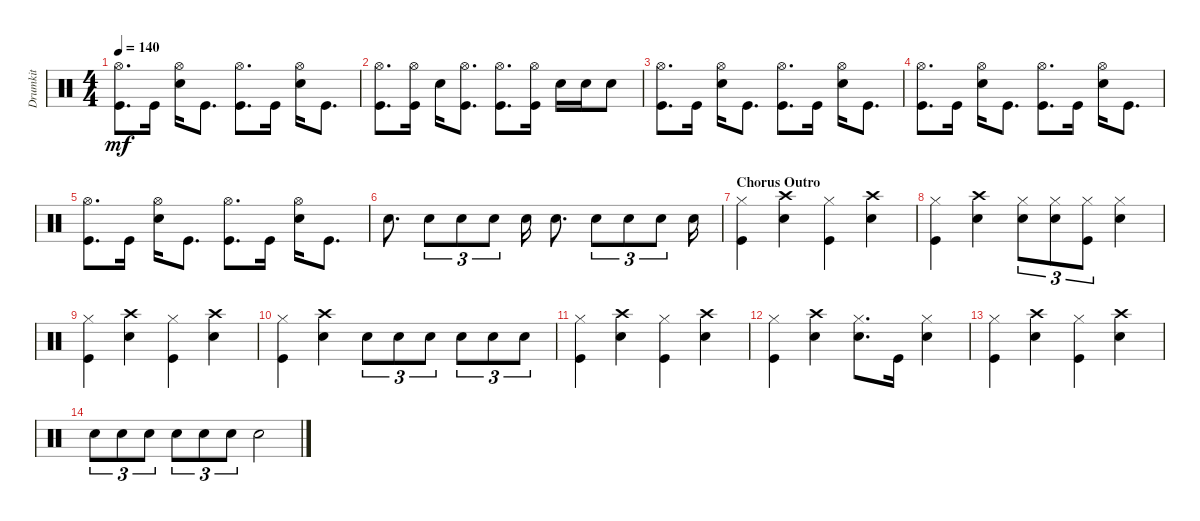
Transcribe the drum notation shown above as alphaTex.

\track ("Drumkit" "Drumkit") {instrument percussion}
\staff {score}
\articulation defaults
\ts (4 4)
\tempo 140
\clef neutral
\ks c
("Kick (hit)" "Hi-Hat (open)").8{d dy mf} "Kick (hit)".16 ("Snare (hit) 2" "Hi-Hat (open)").16 "Kick (hit)".8{d} ("Kick (hit)" "Hi-Hat (open)").8{d} "Kick (hit)".16 ("Snare (hit) 2" "Hi-Hat (open)").16 "Kick (hit)".8{d} |
("Kick (hit)" "Hi-Hat (open)").8{d} ("Kick (hit)" "Hi-Hat (open)").16 "Snare (hit) 2".16 ("Kick (hit)" "Hi-Hat (open)").8{d} ("Kick (hit)" "Hi-Hat (open)").8{d} ("Kick (hit)" "Hi-Hat (open)").16 "Snare (hit) 2".16 "Snare (hit) 2".16 "Snare (hit) 2".8 |
("Kick (hit)" "Hi-Hat (open)").8{d} "Kick (hit)".16 ("Snare (hit) 2" "Hi-Hat (open)").16 "Kick (hit)".8{d} ("Kick (hit)" "Hi-Hat (open)").8{d} "Kick (hit)".16 ("Snare (hit) 2" "Hi-Hat (open)").16 "Kick (hit)".8{d} |
("Kick (hit)" "Hi-Hat (open)").8{d} "Kick (hit)".16 ("Snare (hit) 2" "Hi-Hat (open)").16 "Kick (hit)".8{d} ("Kick (hit)" "Hi-Hat (open)").8{d} "Kick (hit)".16 ("Snare (hit) 2" "Hi-Hat (open)").16 "Kick (hit)".8{d} |
("Kick (hit)" "Hi-Hat (open)").8{d} "Kick (hit)".16 ("Snare (hit) 2" "Hi-Hat (open)").16 "Kick (hit)".8{d} ("Kick (hit)" "Hi-Hat (open)").8{d} "Kick (hit)".16 ("Snare (hit) 2" "Hi-Hat (open)").16 "Kick (hit)".8{d} |
"Snare (hit) 2".8{d} "Snare (hit) 2".8{tu (3 2)} "Snare (hit) 2".8{tu (3 2)} "Snare (hit) 2".8{tu (3 2)} "Snare (hit) 2".16 "Snare (hit) 2".8{d} "Snare (hit) 2".8{tu (3 2)} "Snare (hit) 2".8{tu (3 2)} "Snare (hit) 2".8{tu (3 2)} "Snare (hit) 2".16 |
\section ("" "Chorus Outro")
("Hi-Hat (closed)" "Kick (hit)").4 ("Crash high (hit)" "Snare (hit) 2").4 ("Hi-Hat (closed)" "Kick (hit)").4 ("Crash high (hit)" "Snare (hit) 2").4 |
("Hi-Hat (closed)" "Kick (hit)").4 ("Crash high (hit)" "Snare (hit) 2").4 ("Snare (hit) 2" "Hi-Hat (closed)").8{tu (3 2)} ("Snare (hit) 2" "Hi-Hat (closed)").8{tu (3 2)} ("Kick (hit)" "Hi-Hat (closed)").8{tu (3 2)} ("Snare (hit) 2" "Hi-Hat (closed)").4 |
("Hi-Hat (closed)" "Kick (hit)").4 ("Crash high (hit)" "Snare (hit) 2").4 ("Hi-Hat (closed)" "Kick (hit)").4 ("Crash high (hit)" "Snare (hit) 2").4 |
("Hi-Hat (closed)" "Kick (hit)").4 ("Crash high (hit)" "Snare (hit) 2").4 "Snare (hit) 2".8{tu (3 2)} "Snare (hit) 2".8{tu (3 2)} "Snare (hit) 2".8{tu (3 2)} "Snare (hit) 2".8{tu (3 2)} "Snare (hit) 2".8{tu (3 2)} "Snare (hit) 2".8{tu (3 2)} |
("Hi-Hat (closed)" "Kick (hit)").4 ("Crash high (hit)" "Snare (hit) 2").4 ("Hi-Hat (closed)" "Kick (hit)").4 ("Crash high (hit)" "Snare (hit) 2").4 |
("Hi-Hat (closed)" "Kick (hit)").4 ("Crash high (hit)" "Snare (hit) 2").4 ("Snare (hit) 2" "Hi-Hat (closed)").8{d} "Kick (hit)".16 ("Snare (hit) 2" "Hi-Hat (closed)").4 |
("Hi-Hat (closed)" "Kick (hit)").4 ("Crash high (hit)" "Snare (hit) 2").4 ("Hi-Hat (closed)" "Kick (hit)").4 ("Crash high (hit)" "Snare (hit) 2").4 |
"Snare (hit) 2".8{tu (3 2)} "Snare (hit) 2".8{tu (3 2)} "Snare (hit) 2".8{tu (3 2)} "Snare (hit) 2".8{tu (3 2)} "Snare (hit) 2".8{tu (3 2)} "Snare (hit) 2".8{tu (3 2)} "Snare (hit) 2".2
